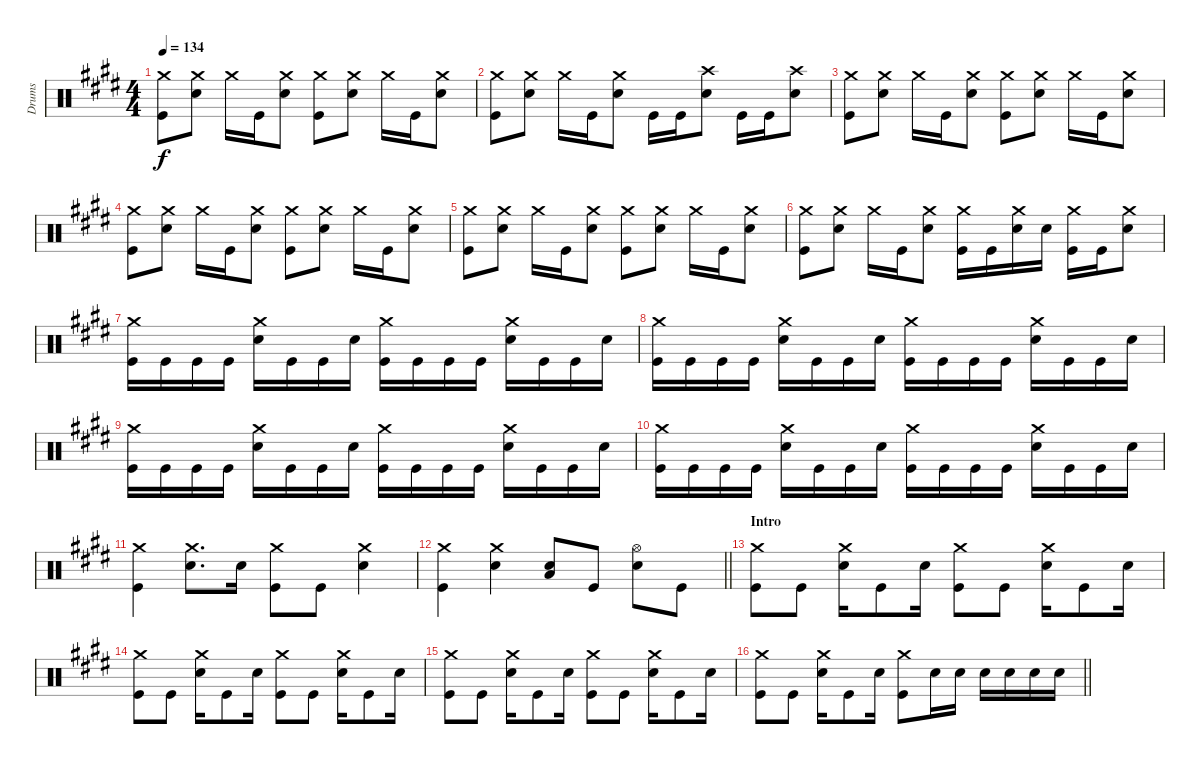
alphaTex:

\track ("Drums" "Drums") {instrument percussion}
\staff {score}
\articulation defaults
\ts (4 4)
\tempo 134
\clef neutral
\ks e
("Crash medium (hit)" "Kick (hit)").8{dy f} ("Crash medium (hit)" "Snare (hit) 2").8 "Crash medium (hit)".16 "Kick (hit)".16 ("Crash medium (hit)" "Snare (hit) 2").8 ("Crash medium (hit)" "Kick (hit)").8 ("Crash medium (hit)" "Snare (hit) 2").8 "Crash medium (hit)".16 "Kick (hit)".16 ("Crash medium (hit)" "Snare (hit) 2").8 |
("Crash medium (hit)" "Kick (hit)").8 ("Crash medium (hit)" "Snare (hit) 2").8 "Crash medium (hit)".16 "Kick (hit)".16 ("Crash medium (hit)" "Snare (hit) 2").8 "Kick (hit)".16 "Kick (hit)".16 ("Crash high (hit)" "Snare (hit) 2").8 "Kick (hit)".16 "Kick (hit)".16 ("Crash high (hit)" "Snare (hit) 2").8 |
("Crash medium (hit)" "Kick (hit)").8 ("Crash medium (hit)" "Snare (hit) 2").8 "Crash medium (hit)".16 "Kick (hit)".16 ("Crash medium (hit)" "Snare (hit) 2").8 ("Crash medium (hit)" "Kick (hit)").8 ("Crash medium (hit)" "Snare (hit) 2").8 "Crash medium (hit)".16 "Kick (hit)".16 ("Crash medium (hit)" "Snare (hit) 2").8 |
("Crash medium (hit)" "Kick (hit)").8 ("Crash medium (hit)" "Snare (hit) 2").8 "Crash medium (hit)".16 "Kick (hit)".16 ("Crash medium (hit)" "Snare (hit) 2").8 ("Crash medium (hit)" "Kick (hit)").8 ("Crash medium (hit)" "Snare (hit) 2").8 "Crash medium (hit)".16 "Kick (hit)".16 ("Crash medium (hit)" "Snare (hit) 2").8 |
("Crash medium (hit)" "Kick (hit)").8 ("Crash medium (hit)" "Snare (hit) 2").8 "Crash medium (hit)".16 "Kick (hit)".16 ("Crash medium (hit)" "Snare (hit) 2").8 ("Crash medium (hit)" "Kick (hit)").8 ("Crash medium (hit)" "Snare (hit) 2").8 "Crash medium (hit)".16 "Kick (hit)".16 ("Crash medium (hit)" "Snare (hit) 2").8 |
("Crash medium (hit)" "Kick (hit)").8 ("Crash medium (hit)" "Snare (hit) 2").8 "Crash medium (hit)".16 "Kick (hit)".16 ("Crash medium (hit)" "Snare (hit) 2").8 ("Crash medium (hit)" "Kick (hit)").16 "Kick (hit)".16 ("Crash medium (hit)" "Snare (hit) 2").16 "Snare (hit) 2".16 ("Crash medium (hit)" "Kick (hit)").16 "Kick (hit)".16 ("Crash medium (hit)" "Snare (hit) 2").8 |
("Crash medium (hit)" "Kick (hit)").16 "Kick (hit)".16 "Kick (hit)".16 "Kick (hit)".16 ("Crash medium (hit)" "Snare (hit) 2").16 "Kick (hit)".16 "Kick (hit)".16 "Snare (hit) 2".16 ("Crash medium (hit)" "Kick (hit)").16 "Kick (hit)".16 "Kick (hit)".16 "Kick (hit)".16 ("Crash medium (hit)" "Snare (hit) 2").16 "Kick (hit)".16 "Kick (hit)".16 "Snare (hit) 2".16 |
("Crash medium (hit)" "Kick (hit)").16 "Kick (hit)".16 "Kick (hit)".16 "Kick (hit)".16 ("Crash medium (hit)" "Snare (hit) 2").16 "Kick (hit)".16 "Kick (hit)".16 "Snare (hit) 2".16 ("Crash medium (hit)" "Kick (hit)").16 "Kick (hit)".16 "Kick (hit)".16 "Kick (hit)".16 ("Crash medium (hit)" "Snare (hit) 2").16 "Kick (hit)".16 "Kick (hit)".16 "Snare (hit) 2".16 |
("Crash medium (hit)" "Kick (hit)").16 "Kick (hit)".16 "Kick (hit)".16 "Kick (hit)".16 ("Crash medium (hit)" "Snare (hit) 2").16 "Kick (hit)".16 "Kick (hit)".16 "Snare (hit) 2".16 ("Crash medium (hit)" "Kick (hit)").16 "Kick (hit)".16 "Kick (hit)".16 "Kick (hit)".16 ("Crash medium (hit)" "Snare (hit) 2").16 "Kick (hit)".16 "Kick (hit)".16 "Snare (hit) 2".16 |
("Crash medium (hit)" "Kick (hit)").16 "Kick (hit)".16 "Kick (hit)".16 "Kick (hit)".16 ("Crash medium (hit)" "Snare (hit) 2").16 "Kick (hit)".16 "Kick (hit)".16 "Snare (hit) 2".16 ("Crash medium (hit)" "Kick (hit)").16 "Kick (hit)".16 "Kick (hit)".16 "Kick (hit)".16 ("Crash medium (hit)" "Snare (hit) 2").16 "Kick (hit)".16 "Kick (hit)".16 "Snare (hit) 2".16 |
("Crash medium (hit)" "Kick (hit)").4 ("Crash medium (hit)" "Snare (hit) 2").8{d} "Snare (hit) 2".16 ("Crash medium (hit)" "Kick (hit)").8 "Kick (hit)".8 ("Crash medium (hit)" "Snare (hit) 2").4 |
\barLineRight lightlight
("Crash medium (hit)" "Kick (hit)").4 ("Crash medium (hit)" "Snare (hit) 2").4 ("Snare (hit) 2" "Low Floor Tom (hit)").8 "Kick (hit)".8 ("Hi-Hat (open)" "Snare (hit) 2").8 "Kick (hit)".8 |
\section ("" "Intro")
("Crash medium (hit)" "Kick (hit)").8 "Kick (hit)".8 ("Crash medium (hit)" "Snare (hit) 2").16 "Kick (hit)".8 "Snare (hit) 2".16 ("Crash medium (hit)" "Kick (hit)").8 "Kick (hit)".8 ("Crash medium (hit)" "Snare (hit) 2").16 "Kick (hit)".8 "Snare (hit) 2".16 |
("Crash medium (hit)" "Kick (hit)").8 "Kick (hit)".8 ("Crash medium (hit)" "Snare (hit) 2").16 "Kick (hit)".8 "Snare (hit) 2".16 ("Crash medium (hit)" "Kick (hit)").8 "Kick (hit)".8 ("Crash medium (hit)" "Snare (hit) 2").16 "Kick (hit)".8 "Snare (hit) 2".16 |
("Crash medium (hit)" "Kick (hit)").8 "Kick (hit)".8 ("Crash medium (hit)" "Snare (hit) 2").16 "Kick (hit)".8 "Snare (hit) 2".16 ("Crash medium (hit)" "Kick (hit)").8 "Kick (hit)".8 ("Crash medium (hit)" "Snare (hit) 2").16 "Kick (hit)".8 "Snare (hit) 2".16 |
\barLineRight lightlight
("Crash medium (hit)" "Kick (hit)").8 "Kick (hit)".8 ("Crash medium (hit)" "Snare (hit) 2").16 "Kick (hit)".8 "Snare (hit) 2".16 ("Crash medium (hit)" "Kick (hit)").8 "Snare (hit) 2".16 "Snare (hit) 2".16 "Snare (hit) 2".16 "Snare (hit) 2".16 "Snare (hit) 2".16 "Snare (hit) 2".16
